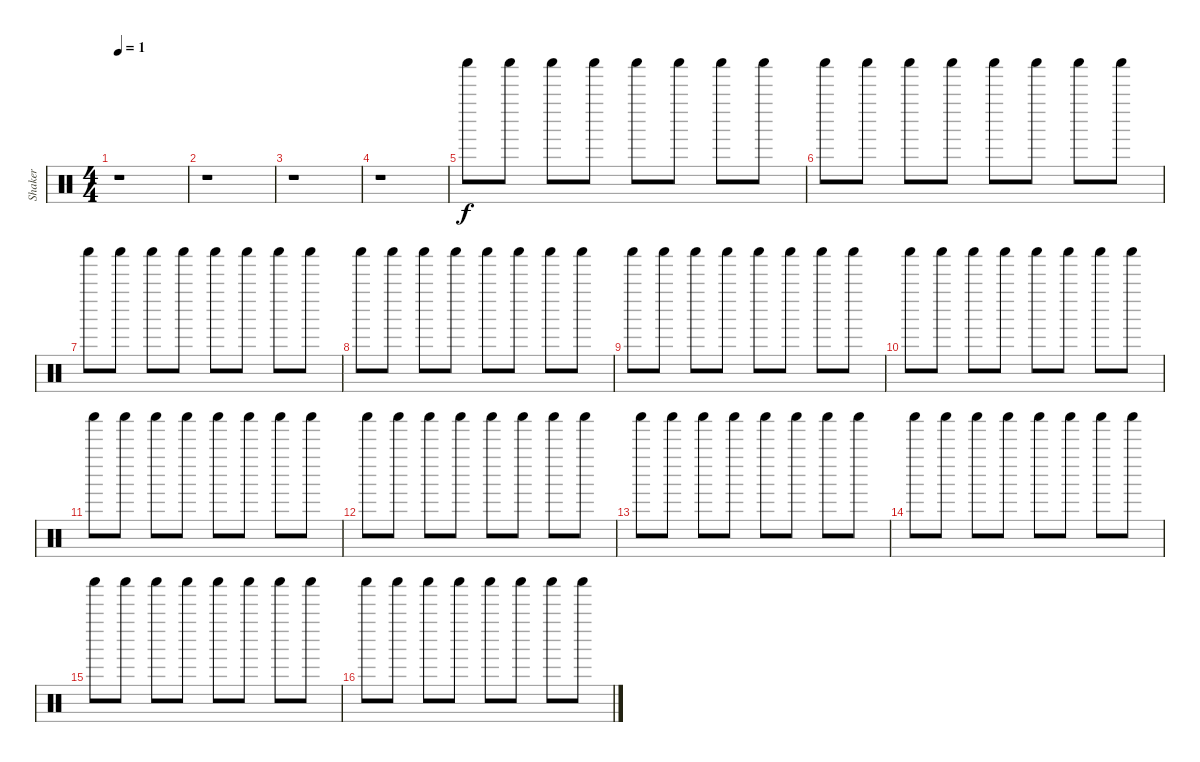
\track ("Shaker" "Shaker") {instrument percussion}
\staff {score}
\articulation defaults
\ts (4 4)
\tempo 1
\clef neutral
\ks c
r.1{dy f} |
r.1 |
r.1 |
r.1 |
"Shaker (hit)".8 "Shaker (hit)".8 "Shaker (hit)".8 "Shaker (hit)".8 "Shaker (hit)".8 "Shaker (hit)".8 "Shaker (hit)".8 "Shaker (hit)".8 |
"Shaker (hit)".8 "Shaker (hit)".8 "Shaker (hit)".8 "Shaker (hit)".8 "Shaker (hit)".8 "Shaker (hit)".8 "Shaker (hit)".8 "Shaker (hit)".8 |
"Shaker (hit)".8 "Shaker (hit)".8 "Shaker (hit)".8 "Shaker (hit)".8 "Shaker (hit)".8 "Shaker (hit)".8 "Shaker (hit)".8 "Shaker (hit)".8 |
"Shaker (hit)".8 "Shaker (hit)".8 "Shaker (hit)".8 "Shaker (hit)".8 "Shaker (hit)".8 "Shaker (hit)".8 "Shaker (hit)".8 "Shaker (hit)".8 |
"Shaker (hit)".8 "Shaker (hit)".8 "Shaker (hit)".8 "Shaker (hit)".8 "Shaker (hit)".8 "Shaker (hit)".8 "Shaker (hit)".8 "Shaker (hit)".8 |
"Shaker (hit)".8 "Shaker (hit)".8 "Shaker (hit)".8 "Shaker (hit)".8 "Shaker (hit)".8 "Shaker (hit)".8 "Shaker (hit)".8 "Shaker (hit)".8 |
"Shaker (hit)".8 "Shaker (hit)".8 "Shaker (hit)".8 "Shaker (hit)".8 "Shaker (hit)".8 "Shaker (hit)".8 "Shaker (hit)".8 "Shaker (hit)".8 |
"Shaker (hit)".8 "Shaker (hit)".8 "Shaker (hit)".8 "Shaker (hit)".8 "Shaker (hit)".8 "Shaker (hit)".8 "Shaker (hit)".8 "Shaker (hit)".8 |
"Shaker (hit)".8 "Shaker (hit)".8 "Shaker (hit)".8 "Shaker (hit)".8 "Shaker (hit)".8 "Shaker (hit)".8 "Shaker (hit)".8 "Shaker (hit)".8 |
"Shaker (hit)".8 "Shaker (hit)".8 "Shaker (hit)".8 "Shaker (hit)".8 "Shaker (hit)".8 "Shaker (hit)".8 "Shaker (hit)".8 "Shaker (hit)".8 |
"Shaker (hit)".8 "Shaker (hit)".8 "Shaker (hit)".8 "Shaker (hit)".8 "Shaker (hit)".8 "Shaker (hit)".8 "Shaker (hit)".8 "Shaker (hit)".8 |
"Shaker (hit)".8 "Shaker (hit)".8 "Shaker (hit)".8 "Shaker (hit)".8 "Shaker (hit)".8 "Shaker (hit)".8 "Shaker (hit)".8 "Shaker (hit)".8
